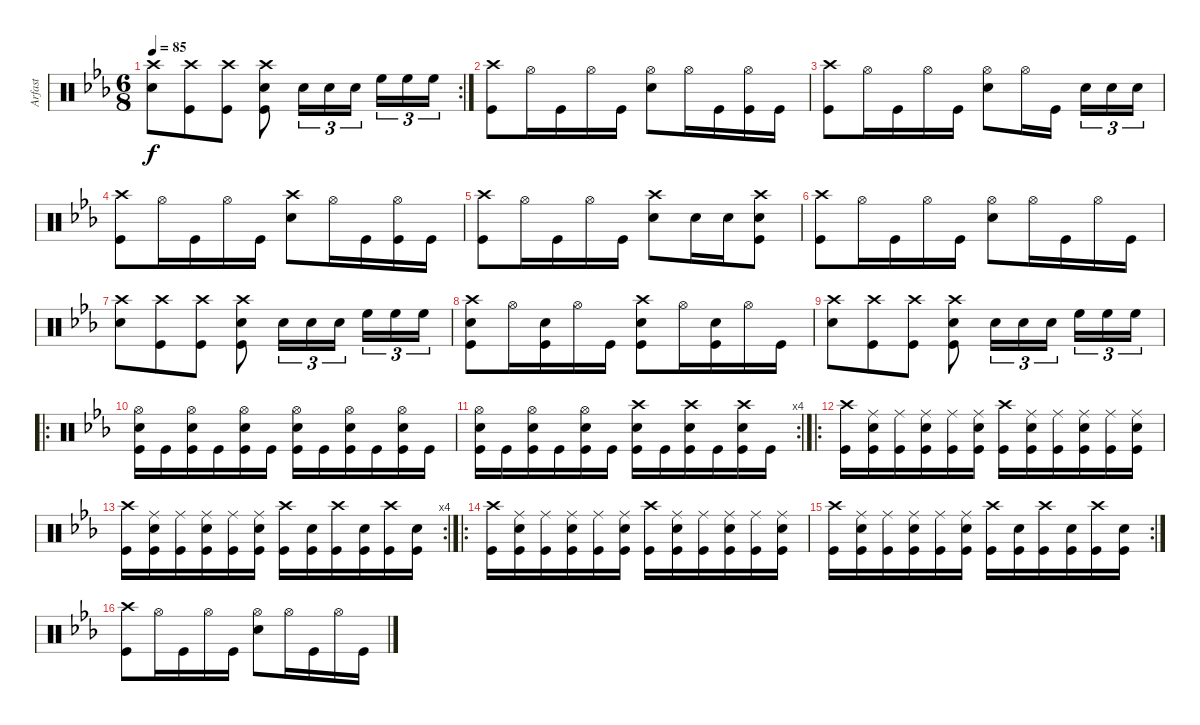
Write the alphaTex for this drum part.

\track ("Arfast" "Arfast") {instrument percussion}
\staff {score}
\articulation defaults
\rc 2
\ts (6 8)
\tempo 85
\clef neutral
\ks cminor
("Crash high (hit)" "Snare (hit) 2").8{dy f} ("Crash high (hit)" "Kick (hit)").8 ("Crash high (hit)" "Kick (hit)").8 ("Crash high (hit)" "Kick (hit)" "Snare (hit) 2").8 "Snare (hit) 2".16{tu (3 2)} "Snare (hit) 2".16{tu (3 2)} "Snare (hit) 2".16{tu (3 2) beam splitsecondary} "High Floor Tom (hit)".16{tu (3 2)} "High Floor Tom (hit)".16{tu (3 2)} "High Floor Tom (hit)".16{tu (3 2)} |
("Kick (hit)" "Crash high (hit)").8 "Hi-Hat (open)".16 "Kick (hit)".16 "Hi-Hat (open)".16 "Kick (hit)".16 ("Snare (hit) 2" "Hi-Hat (open)").8 "Hi-Hat (open)".16 "Kick (hit)".16 ("Hi-Hat (open)" "Kick (hit)").16 "Kick (hit)".16 |
("Kick (hit)" "Crash high (hit)").8 "Hi-Hat (open)".16 "Kick (hit)".16 "Hi-Hat (open)".16 "Kick (hit)".16 ("Snare (hit) 2" "Hi-Hat (open)").8 "Hi-Hat (open)".16 "Kick (hit)".16{beam splitsecondary} "Snare (hit) 2".16{tu (3 2)} "Snare (hit) 2".16{tu (3 2)} "Snare (hit) 2".16{tu (3 2)} |
("Kick (hit)" "Crash high (hit)").8 "Hi-Hat (open)".16 "Kick (hit)".16 "Hi-Hat (open)".16 "Kick (hit)".16 ("Snare (hit) 2" "Crash high (hit)").8 "Hi-Hat (open)".16 "Kick (hit)".16 ("Hi-Hat (open)" "Kick (hit)").16 "Kick (hit)".16 |
("Kick (hit)" "Crash high (hit)").8 "Hi-Hat (open)".16 "Kick (hit)".16 "Hi-Hat (open)".16 "Kick (hit)".16 ("Snare (hit) 2" "Crash high (hit)").8 "Snare (hit) 2".16 "Snare (hit) 2".16 ("Crash high (hit)" "Snare (hit) 2" "Kick (hit)").8 |
("Kick (hit)" "Crash high (hit)").8 "Hi-Hat (open)".16 "Kick (hit)".16 "Hi-Hat (open)".16 "Kick (hit)".16 ("Snare (hit) 2" "Hi-Hat (open)").8 "Hi-Hat (open)".16 "Kick (hit)".16 "Hi-Hat (open)".16 "Kick (hit)".16 |
("Crash high (hit)" "Snare (hit) 2").8 ("Crash high (hit)" "Kick (hit)").8 ("Crash high (hit)" "Kick (hit)").8 ("Crash high (hit)" "Kick (hit)" "Snare (hit) 2").8 "Snare (hit) 2".16{tu (3 2)} "Snare (hit) 2".16{tu (3 2)} "Snare (hit) 2".16{tu (3 2) beam splitsecondary} "High Floor Tom (hit)".16{tu (3 2)} "High Floor Tom (hit)".16{tu (3 2)} "High Floor Tom (hit)".16{tu (3 2)} |
("Kick (hit)" "Crash high (hit)" "Snare (hit) 2").8 "Hi-Hat (open)".16 ("Kick (hit)" "Snare (hit) 2").16 "Hi-Hat (open)".16 "Kick (hit)".16 ("Kick (hit)" "Crash high (hit)" "Snare (hit) 2").8 "Hi-Hat (open)".16 ("Kick (hit)" "Snare (hit) 2").16 "Hi-Hat (open)".16 "Kick (hit)".16 |
("Crash high (hit)" "Snare (hit) 2").8 ("Crash high (hit)" "Kick (hit)").8 ("Crash high (hit)" "Kick (hit)").8 ("Crash high (hit)" "Kick (hit)" "Snare (hit) 2").8 "Snare (hit) 2".16{tu (3 2)} "Snare (hit) 2".16{tu (3 2)} "Snare (hit) 2".16{tu (3 2) beam splitsecondary} "High Floor Tom (hit)".16{tu (3 2)} "High Floor Tom (hit)".16{tu (3 2)} "High Floor Tom (hit)".16{tu (3 2)} |
\ro
("Snare (hit) 2" "Hi-Hat (open)" "Kick (hit)").16 "Kick (hit)".16 ("Snare (hit) 2" "Hi-Hat (open)" "Kick (hit)").16 "Kick (hit)".16 ("Snare (hit) 2" "Hi-Hat (open)" "Kick (hit)").16 "Kick (hit)".16 ("Snare (hit) 2" "Hi-Hat (open)" "Kick (hit)").16 "Kick (hit)".16 ("Snare (hit) 2" "Hi-Hat (open)" "Kick (hit)").16 "Kick (hit)".16 ("Snare (hit) 2" "Hi-Hat (open)" "Kick (hit)").16 "Kick (hit)".16 |
\rc 4
("Snare (hit) 2" "Hi-Hat (open)" "Kick (hit)").16 "Kick (hit)".16 ("Snare (hit) 2" "Hi-Hat (open)" "Kick (hit)").16 "Kick (hit)".16 ("Snare (hit) 2" "Hi-Hat (open)" "Kick (hit)").16 "Kick (hit)".16 ("Crash high (hit)" "Snare (hit) 2" "Kick (hit)").16 "Kick (hit)".16 ("Crash high (hit)" "Snare (hit) 2" "Kick (hit)").16 "Kick (hit)".16 ("Crash high (hit)" "Snare (hit) 2" "Kick (hit)").16 "Kick (hit)".16 |
\ro
("Crash high (hit)" "Kick (hit)").16 ("Ride (middle)" "Snare (hit) 2" "Kick (hit)").16 ("Ride (middle)" "Kick (hit)").16 ("Ride (middle)" "Snare (hit) 2" "Kick (hit)").16 ("Ride (middle)" "Kick (hit)").16 ("Ride (middle)" "Snare (hit) 2" "Kick (hit)").16 ("Crash high (hit)" "Kick (hit)").16 ("Ride (middle)" "Snare (hit) 2" "Kick (hit)").16 ("Ride (middle)" "Kick (hit)").16 ("Ride (middle)" "Snare (hit) 2" "Kick (hit)").16 ("Ride (middle)" "Kick (hit)").16 ("Ride (middle)" "Snare (hit) 2" "Kick (hit)").16 |
\rc 4
("Crash high (hit)" "Kick (hit)").16 ("Ride (middle)" "Snare (hit) 2" "Kick (hit)").16 ("Ride (middle)" "Kick (hit)").16 ("Ride (middle)" "Snare (hit) 2" "Kick (hit)").16 ("Ride (middle)" "Kick (hit)").16 ("Ride (middle)" "Snare (hit) 2" "Kick (hit)").16 ("Crash high (hit)" "Kick (hit)").16 ("Snare (hit) 2" "Kick (hit)").16 ("Crash high (hit)" "Kick (hit)").16 ("Snare (hit) 2" "Kick (hit)").16 ("Crash high (hit)" "Kick (hit)").16 ("Snare (hit) 2" "Kick (hit)").16 |
\ro
("Crash high (hit)" "Kick (hit)").16 ("Ride (middle)" "Snare (hit) 2" "Kick (hit)").16 ("Ride (middle)" "Kick (hit)").16 ("Ride (middle)" "Snare (hit) 2" "Kick (hit)").16 ("Ride (middle)" "Kick (hit)").16 ("Ride (middle)" "Snare (hit) 2" "Kick (hit)").16 ("Crash high (hit)" "Kick (hit)").16 ("Ride (middle)" "Snare (hit) 2" "Kick (hit)").16 ("Ride (middle)" "Kick (hit)").16 ("Ride (middle)" "Snare (hit) 2" "Kick (hit)").16 ("Ride (middle)" "Kick (hit)").16 ("Ride (middle)" "Snare (hit) 2" "Kick (hit)").16 |
\rc 2
("Crash high (hit)" "Kick (hit)").16 ("Ride (middle)" "Snare (hit) 2" "Kick (hit)").16 ("Ride (middle)" "Kick (hit)").16 ("Ride (middle)" "Snare (hit) 2" "Kick (hit)").16 ("Ride (middle)" "Kick (hit)").16 ("Ride (middle)" "Snare (hit) 2" "Kick (hit)").16 ("Crash high (hit)" "Kick (hit)").16 ("Snare (hit) 2" "Kick (hit)").16 ("Crash high (hit)" "Kick (hit)").16 ("Snare (hit) 2" "Kick (hit)").16 ("Crash high (hit)" "Kick (hit)").16 ("Snare (hit) 2" "Kick (hit)").16 |
("Kick (hit)" "Crash high (hit)").8 "Hi-Hat (open)".16 "Kick (hit)".16 "Hi-Hat (open)".16 "Kick (hit)".16 ("Snare (hit) 2" "Hi-Hat (open)").8 "Hi-Hat (open)".16 "Kick (hit)".16 "Hi-Hat (open)".16 "Kick (hit)".16
